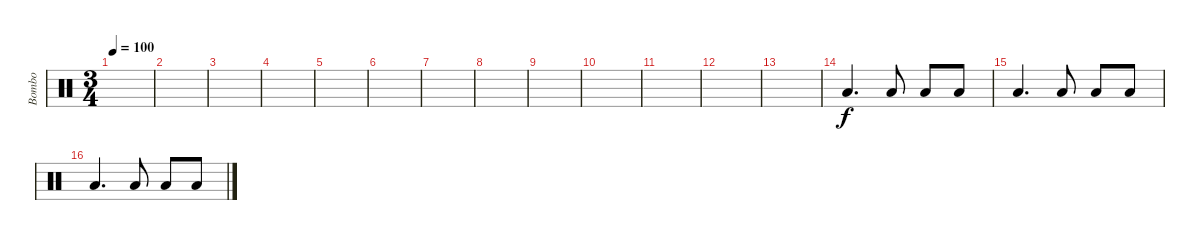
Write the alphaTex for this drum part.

\track ("Bombo" "Bombo") {instrument percussion}
\staff {score}
\articulation defaults
\ts (3 4)
\tempo 100
\clef neutral
\ks c
|
|
|
|
|
|
|
|
|
|
|
|
|
"Low Floor Tom (hit)".4{d} "Low Floor Tom (hit)".8 "Low Floor Tom (hit)".8 "Low Floor Tom (hit)".8 |
"Low Floor Tom (hit)".4{d} "Low Floor Tom (hit)".8 "Low Floor Tom (hit)".8 "Low Floor Tom (hit)".8 |
"Low Floor Tom (hit)".4{d} "Low Floor Tom (hit)".8 "Low Floor Tom (hit)".8 "Low Floor Tom (hit)".8
